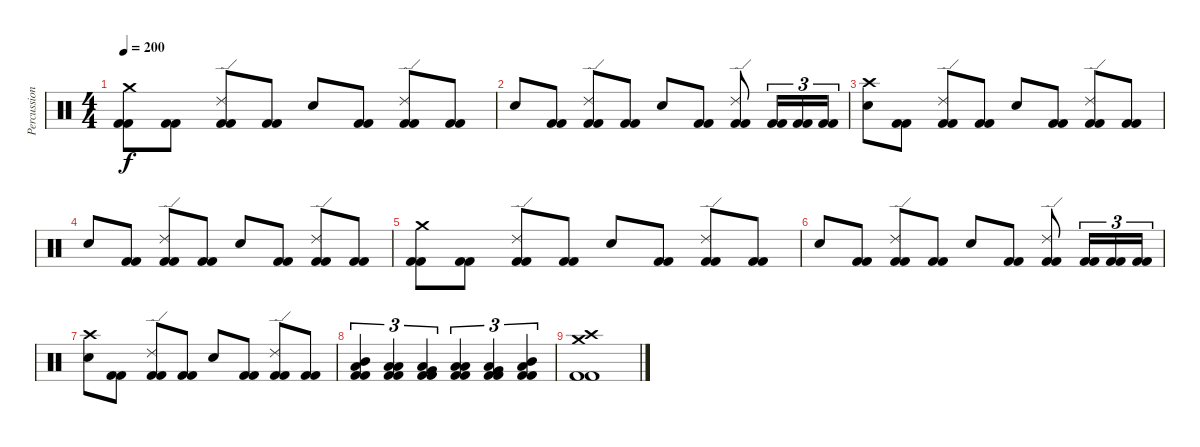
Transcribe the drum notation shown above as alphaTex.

\track ("Percussion" "Percussion") {instrument percussion}
\staff {score}
\articulation defaults
\ts (4 4)
\tempo 200
\clef neutral
\ks c
("Crash medium (hit)" "Kick (hit) 2" "Kick (hit) 2").8{dy f} ("Kick (hit) 2" "Kick (hit) 2").8 ("Kick (hit) 2" "Kick (hit) 2" "Ride (edge) 2").8 ("Kick (hit) 2" "Kick (hit) 2").8 "Electric Snare (hit)".8 ("Kick (hit) 2" "Kick (hit) 2").8 ("Kick (hit) 2" "Kick (hit) 2" "Ride (edge) 2").8 ("Kick (hit) 2" "Kick (hit) 2").8 |
"Electric Snare (hit)".8 ("Kick (hit) 2" "Kick (hit) 2").8 ("Kick (hit) 2" "Kick (hit) 2" "Ride (edge) 2").8 ("Kick (hit) 2" "Kick (hit) 2").8 "Electric Snare (hit)".8 ("Kick (hit) 2" "Kick (hit) 2").8 ("Kick (hit) 2" "Kick (hit) 2" "Ride (edge) 2").8 ("Kick (hit) 2" "Kick (hit) 2").16{tu (3 2)} ("Kick (hit) 2" "Kick (hit) 2").16{tu (3 2)} ("Kick (hit) 2" "Kick (hit) 2").16{tu (3 2)} |
("Electric Snare (hit)" "Crash high (hit)").8 ("Kick (hit) 2" "Kick (hit) 2").8 ("Kick (hit) 2" "Kick (hit) 2" "Ride (edge) 2").8 ("Kick (hit) 2" "Kick (hit) 2").8 "Electric Snare (hit)".8 ("Kick (hit) 2" "Kick (hit) 2").8 ("Kick (hit) 2" "Kick (hit) 2" "Ride (edge) 2").8 ("Kick (hit) 2" "Kick (hit) 2").8 |
"Electric Snare (hit)".8 ("Kick (hit) 2" "Kick (hit) 2").8 ("Kick (hit) 2" "Kick (hit) 2" "Ride (edge) 2").8 ("Kick (hit) 2" "Kick (hit) 2").8 "Electric Snare (hit)".8 ("Kick (hit) 2" "Kick (hit) 2").8 ("Kick (hit) 2" "Kick (hit) 2" "Ride (edge) 2").8 ("Kick (hit) 2" "Kick (hit) 2").8 |
("Crash medium (hit)" "Kick (hit) 2" "Kick (hit) 2").8 ("Kick (hit) 2" "Kick (hit) 2").8 ("Kick (hit) 2" "Kick (hit) 2" "Ride (edge) 2").8 ("Kick (hit) 2" "Kick (hit) 2").8 "Electric Snare (hit)".8 ("Kick (hit) 2" "Kick (hit) 2").8 ("Kick (hit) 2" "Kick (hit) 2" "Ride (edge) 2").8 ("Kick (hit) 2" "Kick (hit) 2").8 |
"Electric Snare (hit)".8 ("Kick (hit) 2" "Kick (hit) 2").8 ("Kick (hit) 2" "Kick (hit) 2" "Ride (edge) 2").8 ("Kick (hit) 2" "Kick (hit) 2").8 "Electric Snare (hit)".8 ("Kick (hit) 2" "Kick (hit) 2").8 ("Kick (hit) 2" "Kick (hit) 2" "Ride (edge) 2").8 ("Kick (hit) 2" "Kick (hit) 2").16{tu (3 2)} ("Kick (hit) 2" "Kick (hit) 2").16{tu (3 2)} ("Kick (hit) 2" "Kick (hit) 2").16{tu (3 2)} |
("Electric Snare (hit)" "Crash high (hit)").8 ("Kick (hit) 2" "Kick (hit) 2").8 ("Kick (hit) 2" "Kick (hit) 2" "Ride (edge) 2").8 ("Kick (hit) 2" "Kick (hit) 2").8 "Electric Snare (hit)".8 ("Kick (hit) 2" "Kick (hit) 2").8 ("Kick (hit) 2" "Kick (hit) 2" "Ride (edge) 2").8 ("Kick (hit) 2" "Kick (hit) 2").8 |
("Mid Tom (hit)" "Low Floor Tom (hit)" "Kick (hit) 2" "Kick (hit) 2").4{tu (3 2)} ("Low Tom (hit)" "Low Floor Tom (hit)" "Kick (hit) 2" "Kick (hit) 2").4{tu (3 2)} ("Very Low Tom (hit)" "Low Floor Tom (hit)" "Kick (hit) 2" "Kick (hit) 2").4{tu (3 2)} ("Low Tom (hit)" "Low Floor Tom (hit)" "Kick (hit) 2" "Kick (hit) 2").4{tu (3 2)} ("Very Low Tom (hit)" "Low Floor Tom (hit)" "Kick (hit) 2" "Kick (hit) 2").4{tu (3 2)} ("Mid Tom (hit)" "Low Floor Tom (hit)" "Kick (hit) 2" "Kick (hit) 2").4{tu (3 2)} |
("Kick (hit) 2" "Kick (hit) 2" "Crash medium (hit)" "Crash high (hit)").1
